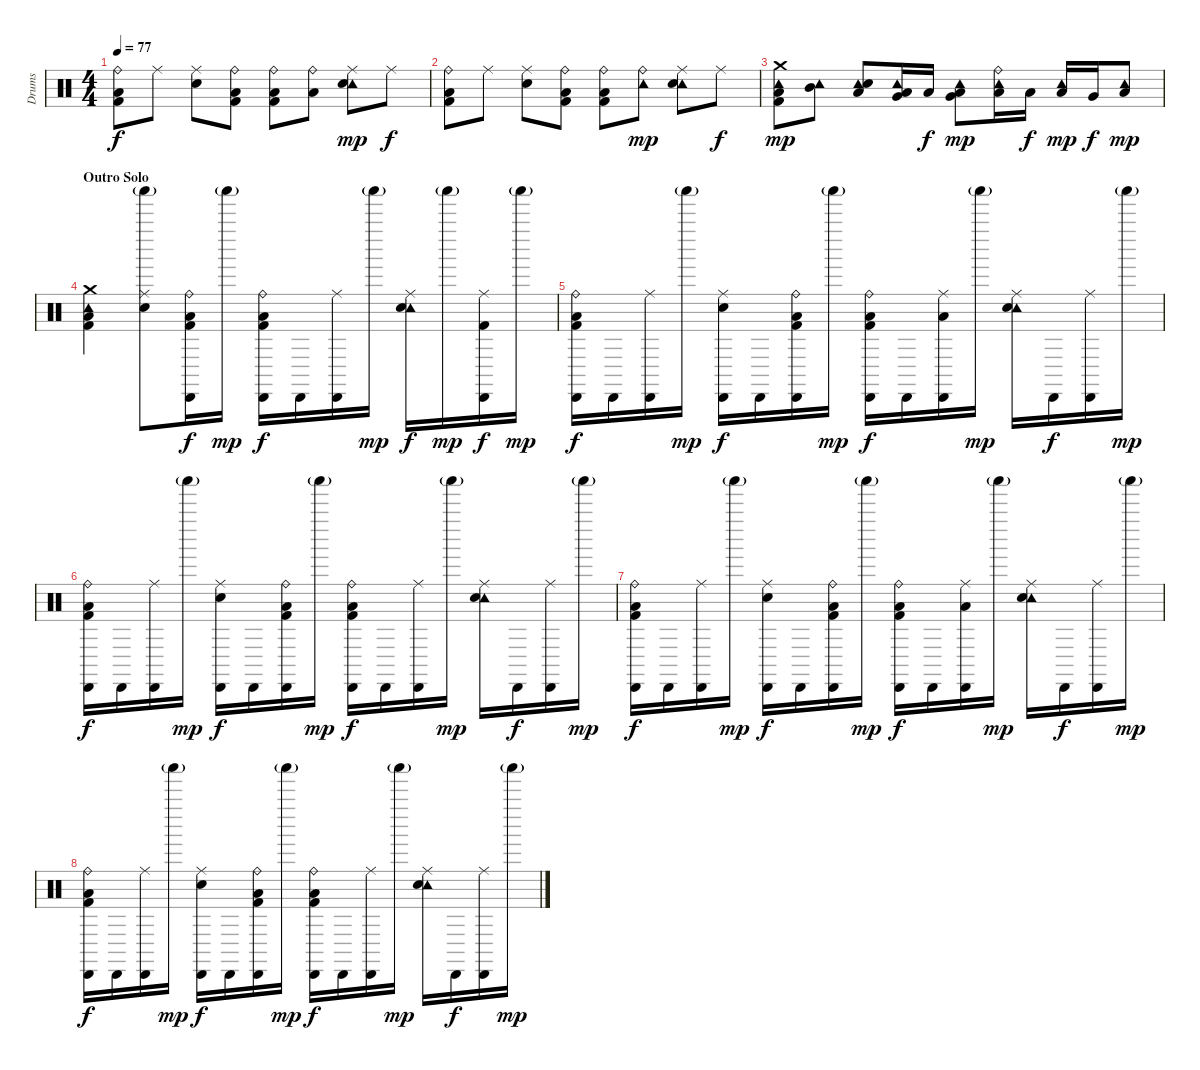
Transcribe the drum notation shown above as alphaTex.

\track ("Drums" "Drums") {instrument percussion}
\staff {score}
\articulation defaults
\ts (4 4)
\tempo 77
\clef neutral
\ks c
("Ride (bell)" "Low Floor Tom (hit)" "Kick (hit) 2").8{dy f} "Ride (middle)".8 ("Ride (middle)" "Snare (hit) 2").8 ("Ride (bell)" "Low Floor Tom (hit)" "Kick (hit) 2").8 ("Ride (bell)" "Low Floor Tom (hit)" "Kick (hit) 2").8 ("Ride (bell)" "Low Floor Tom (hit)").8 ("Tambourine (hit)" "Ride (middle)" "Snare (hit) 2").8{dy mp} "Ride (middle)".8{dy f} |
("Ride (bell)" "Low Floor Tom (hit)" "Kick (hit) 2").8 "Ride (middle)".8 ("Ride (middle)" "Snare (hit) 2").8 ("Ride (bell)" "Low Floor Tom (hit)" "Kick (hit) 2").8 ("Ride (bell)" "Low Floor Tom (hit)" "Kick (hit) 2").8 ("Tambourine (hit)" "Ride (bell)").8{dy mp} ("Tambourine (hit)" "Ride (middle)" "Snare (hit) 2").8 "Ride (middle)".8{dy f} |
("Tambourine (hit)" "Crash medium (hit)" "Low Floor Tom (hit)" "Kick (hit) 2").8{dy mp} ("Tambourine (hit)" "Mid Tom (hit)").8 ("Tambourine (hit)" "Electric Snare (hit)" "Low Tom (hit)").8 ("Tambourine (hit)" "Low Floor Tom (hit)" "Very Low Tom (hit)").16 "Low Tom (hit)".16{dy f} ("Tambourine (hit)" "Low Floor Tom (hit)" "Very Low Tom (hit)").8{dy mp} ("Tambourine (hit)" "Ride (bell)" "Low Floor Tom (hit)").16 "Low Floor Tom (hit)".16{dy f} ("Tambourine (hit)" "Low Tom (hit)").16{dy mp} "Very Low Tom (hit)".16{dy f} ("Tambourine (hit)" "Low Floor Tom (hit)").8{dy mp} |
\section ("" "Outro Solo")
("Crash medium (hit)" "Tambourine (hit)" "Low Floor Tom (hit)" "Kick (hit) 2").4 ("Shaker (hit)"{g} "Ride (middle)" "Snare (hit) 2").8 ("Cabasa (hit)" "Ride (bell)" "Low Floor Tom (hit)" "Kick (hit) 2").16{dy f} "Shaker (hit)"{g}.16{dy mp} ("Cabasa (hit)" "Ride (bell)" "Low Floor Tom (hit)" "Kick (hit) 2").16{dy f} "Cabasa (hit)".16 ("Cabasa (hit)" "Ride (middle)").16 "Shaker (hit)"{g}.16{dy mp} ("Tambourine (hit)" "Ride (middle)" "Snare (hit) 2").16{dy f} "Shaker (hit)"{g}.16{dy mp} ("Cabasa (hit)" "Ride (middle)" "Kick (hit) 2").16{dy f} "Shaker (hit)"{g}.16{dy mp} |
("Cabasa (hit)" "Ride (bell)" "Low Floor Tom (hit)" "Kick (hit) 2").16{dy f} "Cabasa (hit)".16 ("Cabasa (hit)" "Ride (middle)").16 "Shaker (hit)"{g}.16{dy mp} ("Cabasa (hit)" "Ride (middle)" "Snare (hit) 2").16{dy f} "Cabasa (hit)".16 ("Cabasa (hit)" "Ride (bell)" "Low Floor Tom (hit)" "Kick (hit) 2").16 "Shaker (hit)"{g}.16{dy mp} ("Cabasa (hit)" "Ride (bell)" "Low Floor Tom (hit)" "Kick (hit) 2").16{dy f} "Cabasa (hit)".16 ("Cabasa (hit)" "Ride (middle)" "Low Floor Tom (hit)").16 "Shaker (hit)"{g}.16{dy mp} ("Tambourine (hit)" "Ride (middle)" "Snare (hit) 2").16 "Cabasa (hit)".16{dy f} ("Cabasa (hit)" "Ride (middle)").16 "Shaker (hit)"{g}.16{dy mp} |
("Cabasa (hit)" "Ride (bell)" "Low Floor Tom (hit)" "Kick (hit) 2").16{dy f} "Cabasa (hit)".16 ("Cabasa (hit)" "Ride (middle)").16 "Shaker (hit)"{g}.16{dy mp} ("Cabasa (hit)" "Ride (middle)" "Snare (hit) 2").16{dy f} "Cabasa (hit)".16 ("Cabasa (hit)" "Ride (bell)" "Low Floor Tom (hit)" "Kick (hit) 2").16 "Shaker (hit)"{g}.16{dy mp} ("Cabasa (hit)" "Ride (bell)" "Low Floor Tom (hit)" "Kick (hit) 2").16{dy f} "Cabasa (hit)".16 ("Cabasa (hit)" "Ride (middle)").16 "Shaker (hit)"{g}.16{dy mp} ("Tambourine (hit)" "Ride (middle)" "Snare (hit) 2").16 "Cabasa (hit)".16{dy f} ("Cabasa (hit)" "Ride (middle)").16 "Shaker (hit)"{g}.16{dy mp} |
("Cabasa (hit)" "Ride (bell)" "Low Floor Tom (hit)" "Kick (hit) 2").16{dy f} "Cabasa (hit)".16 ("Cabasa (hit)" "Ride (middle)").16 "Shaker (hit)"{g}.16{dy mp} ("Cabasa (hit)" "Ride (middle)" "Snare (hit) 2").16{dy f} "Cabasa (hit)".16 ("Cabasa (hit)" "Ride (bell)" "Low Floor Tom (hit)" "Kick (hit) 2").16 "Shaker (hit)"{g}.16{dy mp} ("Cabasa (hit)" "Ride (bell)" "Low Floor Tom (hit)" "Kick (hit) 2").16{dy f} "Cabasa (hit)".16 ("Cabasa (hit)" "Ride (middle)" "Low Floor Tom (hit)").16 "Shaker (hit)"{g}.16{dy mp} ("Tambourine (hit)" "Ride (middle)" "Snare (hit) 2").16 "Cabasa (hit)".16{dy f} ("Cabasa (hit)" "Ride (middle)").16 "Shaker (hit)"{g}.16{dy mp} |
("Cabasa (hit)" "Ride (bell)" "Low Floor Tom (hit)" "Kick (hit) 2").16{dy f} "Cabasa (hit)".16 ("Cabasa (hit)" "Ride (middle)").16 "Shaker (hit)"{g}.16{dy mp} ("Cabasa (hit)" "Ride (middle)" "Snare (hit) 2").16{dy f} "Cabasa (hit)".16 ("Cabasa (hit)" "Ride (bell)" "Low Floor Tom (hit)" "Kick (hit) 2").16 "Shaker (hit)"{g}.16{dy mp} ("Cabasa (hit)" "Ride (bell)" "Low Floor Tom (hit)" "Kick (hit) 2").16{dy f} "Cabasa (hit)".16 ("Cabasa (hit)" "Ride (middle)").16 "Shaker (hit)"{g}.16{dy mp} ("Tambourine (hit)" "Ride (middle)" "Snare (hit) 2").16 "Cabasa (hit)".16{dy f} ("Cabasa (hit)" "Ride (middle)").16 "Shaker (hit)"{g}.16{dy mp}
